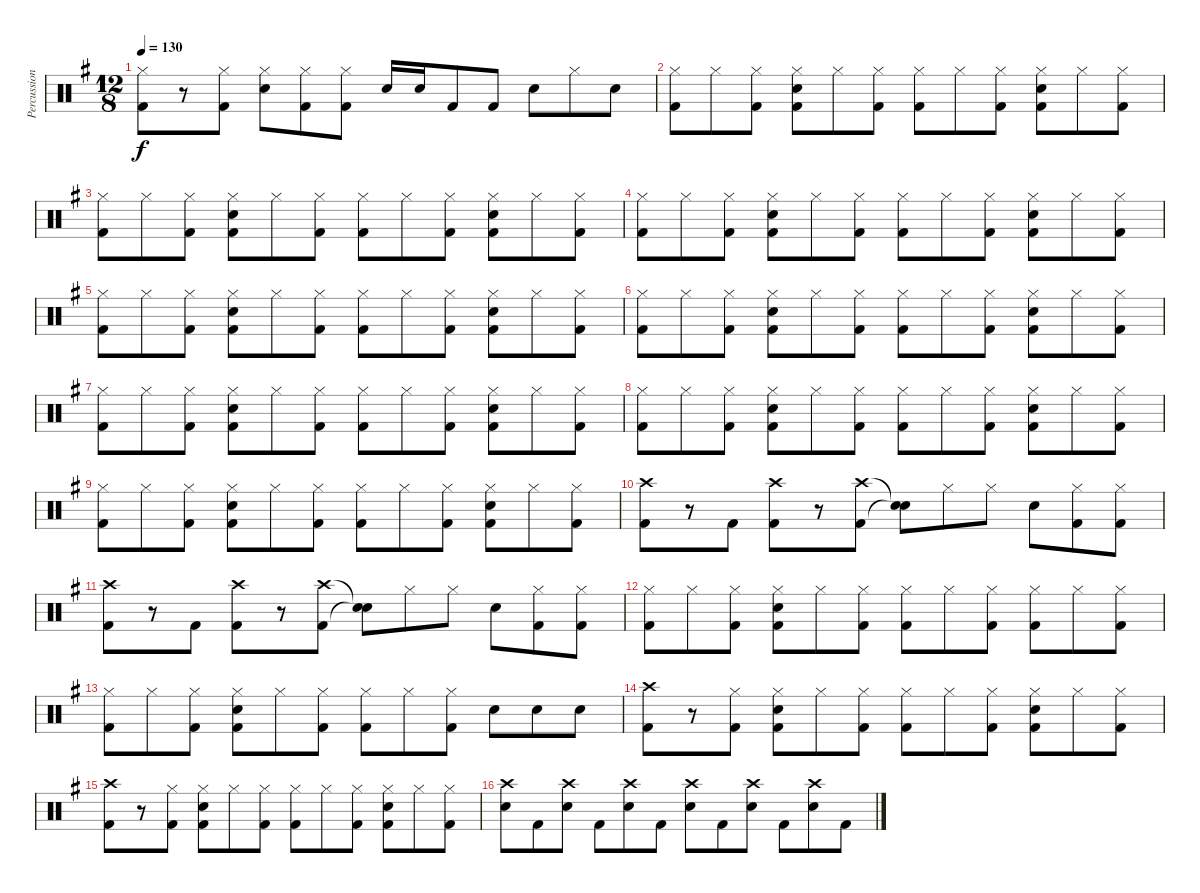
\track ("Percussion" "Percussion") {instrument percussion}
\staff {score}
\articulation defaults
\ts (12 8)
\tempo 130
\clef neutral
\ks g
("Hi-Hat (closed)" "Kick (hit) 2").8{dy f} r.8 ("Hi-Hat (closed)" "Kick (hit) 2").8 ("Hi-Hat (closed)" "Snare (hit) 2").8 ("Hi-Hat (closed)" "Kick (hit) 2").8 ("Hi-Hat (closed)" "Kick (hit) 2").8 "Snare (hit) 2".16 "Snare (hit) 2".16 "Kick (hit) 2".8 "Kick (hit) 2".8 "Snare (hit) 2".8 "Hi-Hat (closed)".8 "Snare (hit) 2".8 |
("Hi-Hat (closed)" "Kick (hit) 2").8 "Hi-Hat (closed)".8 ("Hi-Hat (closed)" "Kick (hit) 2").8 ("Hi-Hat (closed)" "Snare (hit) 2" "Kick (hit) 2").8 "Hi-Hat (closed)".8 ("Hi-Hat (closed)" "Kick (hit) 2").8 ("Hi-Hat (closed)" "Kick (hit) 2").8 "Hi-Hat (closed)".8 ("Hi-Hat (closed)" "Kick (hit) 2").8 ("Hi-Hat (closed)" "Snare (hit) 2" "Kick (hit) 2").8 "Hi-Hat (closed)".8 ("Hi-Hat (closed)" "Kick (hit) 2").8 |
("Hi-Hat (closed)" "Kick (hit) 2").8 "Hi-Hat (closed)".8 ("Hi-Hat (closed)" "Kick (hit) 2").8 ("Hi-Hat (closed)" "Snare (hit) 2" "Kick (hit) 2").8 "Hi-Hat (closed)".8 ("Hi-Hat (closed)" "Kick (hit) 2").8 ("Hi-Hat (closed)" "Kick (hit) 2").8 "Hi-Hat (closed)".8 ("Hi-Hat (closed)" "Kick (hit) 2").8 ("Hi-Hat (closed)" "Snare (hit) 2" "Kick (hit) 2").8 "Hi-Hat (closed)".8 ("Hi-Hat (closed)" "Kick (hit) 2").8 |
("Hi-Hat (closed)" "Kick (hit) 2").8 "Hi-Hat (closed)".8 ("Hi-Hat (closed)" "Kick (hit) 2").8 ("Hi-Hat (closed)" "Snare (hit) 2" "Kick (hit) 2").8 "Hi-Hat (closed)".8 ("Hi-Hat (closed)" "Kick (hit) 2").8 ("Hi-Hat (closed)" "Kick (hit) 2").8 "Hi-Hat (closed)".8 ("Hi-Hat (closed)" "Kick (hit) 2").8 ("Hi-Hat (closed)" "Snare (hit) 2" "Kick (hit) 2").8 "Hi-Hat (closed)".8 ("Hi-Hat (closed)" "Kick (hit) 2").8 |
("Hi-Hat (closed)" "Kick (hit) 2").8 "Hi-Hat (closed)".8 ("Hi-Hat (closed)" "Kick (hit) 2").8 ("Hi-Hat (closed)" "Snare (hit) 2" "Kick (hit) 2").8 "Hi-Hat (closed)".8 ("Hi-Hat (closed)" "Kick (hit) 2").8 ("Hi-Hat (closed)" "Kick (hit) 2").8 "Hi-Hat (closed)".8 ("Hi-Hat (closed)" "Kick (hit) 2").8 ("Hi-Hat (closed)" "Snare (hit) 2" "Kick (hit) 2").8 "Hi-Hat (closed)".8 ("Hi-Hat (closed)" "Kick (hit) 2").8 |
("Hi-Hat (closed)" "Kick (hit) 2").8 "Hi-Hat (closed)".8 ("Hi-Hat (closed)" "Kick (hit) 2").8 ("Hi-Hat (closed)" "Snare (hit) 2" "Kick (hit) 2").8 "Hi-Hat (closed)".8 ("Hi-Hat (closed)" "Kick (hit) 2").8 ("Hi-Hat (closed)" "Kick (hit) 2").8 "Hi-Hat (closed)".8 ("Hi-Hat (closed)" "Kick (hit) 2").8 ("Hi-Hat (closed)" "Snare (hit) 2" "Kick (hit) 2").8 "Hi-Hat (closed)".8 ("Hi-Hat (closed)" "Kick (hit) 2").8 |
("Hi-Hat (closed)" "Kick (hit) 2").8 "Hi-Hat (closed)".8 ("Hi-Hat (closed)" "Kick (hit) 2").8 ("Hi-Hat (closed)" "Snare (hit) 2" "Kick (hit) 2").8 "Hi-Hat (closed)".8 ("Hi-Hat (closed)" "Kick (hit) 2").8 ("Hi-Hat (closed)" "Kick (hit) 2").8 "Hi-Hat (closed)".8 ("Hi-Hat (closed)" "Kick (hit) 2").8 ("Hi-Hat (closed)" "Snare (hit) 2" "Kick (hit) 2").8 "Hi-Hat (closed)".8 ("Hi-Hat (closed)" "Kick (hit) 2").8 |
("Hi-Hat (closed)" "Kick (hit) 2").8 "Hi-Hat (closed)".8 ("Hi-Hat (closed)" "Kick (hit) 2").8 ("Hi-Hat (closed)" "Snare (hit) 2" "Kick (hit) 2").8 "Hi-Hat (closed)".8 ("Hi-Hat (closed)" "Kick (hit) 2").8 ("Hi-Hat (closed)" "Kick (hit) 2").8 "Hi-Hat (closed)".8 ("Hi-Hat (closed)" "Kick (hit) 2").8 ("Hi-Hat (closed)" "Snare (hit) 2" "Kick (hit) 2").8 "Hi-Hat (closed)".8 ("Hi-Hat (closed)" "Kick (hit) 2").8 |
("Hi-Hat (closed)" "Kick (hit) 2").8 "Hi-Hat (closed)".8 ("Hi-Hat (closed)" "Kick (hit) 2").8 ("Hi-Hat (closed)" "Snare (hit) 2" "Kick (hit) 2").8 "Hi-Hat (closed)".8 ("Hi-Hat (closed)" "Kick (hit) 2").8 ("Hi-Hat (closed)" "Kick (hit) 2").8 "Hi-Hat (closed)".8 ("Hi-Hat (closed)" "Kick (hit) 2").8 ("Hi-Hat (closed)" "Snare (hit) 2" "Kick (hit) 2").8 "Hi-Hat (closed)".8 ("Hi-Hat (closed)" "Kick (hit) 2").8 |
("Crash high (hit)" "Kick (hit) 2").8 r.8 "Kick (hit) 2".8 ("Crash high (hit)" "Kick (hit) 2").8 r.8 ("Crash high (hit)" "Kick (hit) 2").8 ("Snare (hit)"{t} "Snare (hit)"{t}).8 "Hi-Hat (closed)".8 "Hi-Hat (closed)".8 "Snare (hit) 2".8 ("Hi-Hat (closed)" "Kick (hit) 2").8 ("Hi-Hat (closed)" "Kick (hit) 2").8 |
("Crash high (hit)" "Kick (hit) 2").8 r.8 "Kick (hit) 2".8 ("Crash high (hit)" "Kick (hit) 2").8 r.8 ("Crash high (hit)" "Kick (hit) 2").8 ("Snare (hit)"{t} "Snare (hit)"{t}).8 "Hi-Hat (closed)".8 "Hi-Hat (closed)".8 "Snare (hit) 2".8 ("Hi-Hat (closed)" "Kick (hit) 2").8 ("Hi-Hat (closed)" "Kick (hit) 2").8 |
("Hi-Hat (closed)" "Kick (hit) 2").8 "Hi-Hat (closed)".8 ("Hi-Hat (closed)" "Kick (hit) 2").8 ("Hi-Hat (closed)" "Snare (hit) 2" "Kick (hit) 2").8 "Hi-Hat (closed)".8 ("Hi-Hat (closed)" "Kick (hit) 2").8 ("Hi-Hat (closed)" "Kick (hit) 2").8 "Hi-Hat (closed)".8 ("Hi-Hat (closed)" "Kick (hit) 2").8 ("Hi-Hat (closed)" "Kick (hit) 2").8 "Hi-Hat (closed)".8 ("Hi-Hat (closed)" "Kick (hit) 2").8 |
("Hi-Hat (closed)" "Kick (hit) 2").8 "Hi-Hat (closed)".8 ("Hi-Hat (closed)" "Kick (hit) 2").8 ("Hi-Hat (closed)" "Snare (hit) 2" "Kick (hit) 2").8 "Hi-Hat (closed)".8 ("Hi-Hat (closed)" "Kick (hit) 2").8 ("Hi-Hat (closed)" "Kick (hit) 2").8 "Hi-Hat (closed)".8 ("Hi-Hat (closed)" "Kick (hit) 2").8 "Snare (hit) 2".8 "Snare (hit) 2".8 "Snare (hit) 2".8 |
("Crash high (hit)" "Kick (hit) 2").8 r.8 ("Hi-Hat (closed)" "Kick (hit) 2").8 ("Hi-Hat (closed)" "Snare (hit) 2" "Kick (hit) 2").8 "Hi-Hat (closed)".8 ("Hi-Hat (closed)" "Kick (hit) 2").8 ("Hi-Hat (closed)" "Kick (hit) 2").8 "Hi-Hat (closed)".8 ("Hi-Hat (closed)" "Kick (hit) 2").8 ("Hi-Hat (closed)" "Snare (hit) 2" "Kick (hit) 2").8 "Hi-Hat (closed)".8 ("Hi-Hat (closed)" "Kick (hit) 2").8 |
("Crash high (hit)" "Kick (hit) 2").8 r.8 ("Hi-Hat (closed)" "Kick (hit) 2").8 ("Hi-Hat (closed)" "Snare (hit) 2" "Kick (hit) 2").8 "Hi-Hat (closed)".8 ("Hi-Hat (closed)" "Kick (hit) 2").8 ("Hi-Hat (closed)" "Kick (hit) 2").8 "Hi-Hat (closed)".8 ("Hi-Hat (closed)" "Kick (hit) 2").8 ("Hi-Hat (closed)" "Snare (hit) 2" "Kick (hit) 2").8 "Hi-Hat (closed)".8 ("Hi-Hat (closed)" "Kick (hit) 2").8 |
("Crash high (hit)" "Snare (hit) 2").8 "Kick (hit) 2".8 ("Crash high (hit)" "Snare (hit) 2").8 "Kick (hit) 2".8 ("Crash high (hit)" "Snare (hit) 2").8 "Kick (hit) 2".8 ("Crash high (hit)" "Snare (hit) 2").8 "Kick (hit) 2".8 ("Crash high (hit)" "Snare (hit) 2").8 "Kick (hit) 2".8 ("Crash high (hit)" "Snare (hit) 2").8 "Kick (hit) 2".8
